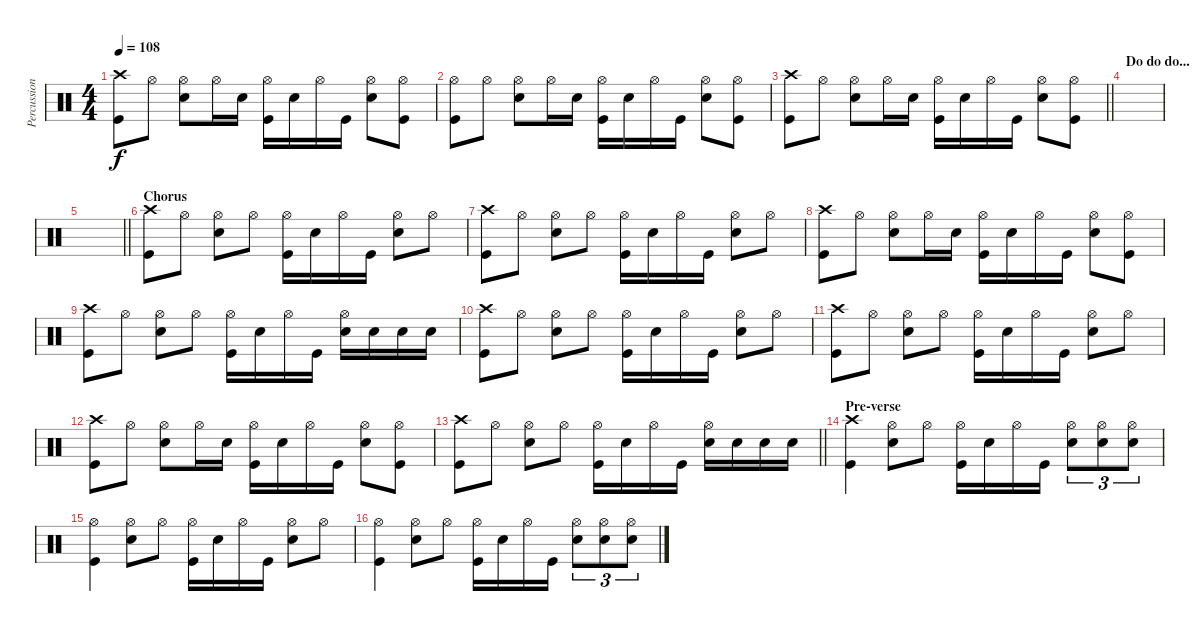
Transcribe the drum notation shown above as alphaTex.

\track ("Percussion" "Percussion") {instrument percussion}
\staff {score}
\articulation defaults
\ts (4 4)
\tempo 108
\clef neutral
\ks c
("Crash high (hit)" "Kick (hit)").8{dy f} "Hi-Hat (open)".8 ("Hi-Hat (open)" "Electric Snare (hit)").8 "Hi-Hat (open)".16 "Electric Snare (hit)".16 ("Hi-Hat (open)" "Kick (hit)").16 "Electric Snare (hit)".16 "Hi-Hat (open)".16 "Kick (hit)".16 ("Hi-Hat (open)" "Electric Snare (hit)").8 ("Hi-Hat (open)" "Kick (hit)").8 |
("Hi-Hat (open)" "Kick (hit)").8 "Hi-Hat (open)".8 ("Hi-Hat (open)" "Electric Snare (hit)").8 "Hi-Hat (open)".16 "Electric Snare (hit)".16 ("Hi-Hat (open)" "Kick (hit)").16 "Electric Snare (hit)".16 "Hi-Hat (open)".16 "Kick (hit)".16 ("Hi-Hat (open)" "Electric Snare (hit)").8 ("Hi-Hat (open)" "Kick (hit)").8 |
\barLineRight lightlight
("Crash high (hit)" "Kick (hit)").8 "Hi-Hat (open)".8 ("Hi-Hat (open)" "Electric Snare (hit)").8 "Hi-Hat (open)".16 "Electric Snare (hit)".16 ("Hi-Hat (open)" "Kick (hit)").16 "Electric Snare (hit)".16 "Hi-Hat (open)".16 "Kick (hit)".16 ("Hi-Hat (open)" "Electric Snare (hit)").8 ("Hi-Hat (open)" "Kick (hit)").8 |
\section ("" "Do do do...")
|
\barLineRight lightlight
|
\section ("" "Chorus")
("Crash high (hit)" "Kick (hit)").8 "Hi-Hat (open)".8 ("Hi-Hat (open)" "Electric Snare (hit)").8 "Hi-Hat (open)".8 ("Hi-Hat (open)" "Kick (hit)").16 "Electric Snare (hit)".16 "Hi-Hat (open)".16 "Kick (hit)".16 ("Hi-Hat (open)" "Electric Snare (hit)").8 "Hi-Hat (open)".8 |
("Crash high (hit)" "Kick (hit)").8 "Hi-Hat (open)".8 ("Hi-Hat (open)" "Electric Snare (hit)").8 "Hi-Hat (open)".8 ("Hi-Hat (open)" "Kick (hit)").16 "Electric Snare (hit)".16 "Hi-Hat (open)".16 "Kick (hit)".16 ("Hi-Hat (open)" "Electric Snare (hit)").8 "Hi-Hat (open)".8 |
("Crash high (hit)" "Kick (hit)").8 "Hi-Hat (open)".8 ("Hi-Hat (open)" "Electric Snare (hit)").8 "Hi-Hat (open)".16 "Electric Snare (hit)".16 ("Hi-Hat (open)" "Kick (hit)").16 "Electric Snare (hit)".16 "Hi-Hat (open)".16 "Kick (hit)".16 ("Hi-Hat (open)" "Electric Snare (hit)").8 ("Hi-Hat (open)" "Kick (hit)").8 |
("Crash high (hit)" "Kick (hit)").8 "Hi-Hat (open)".8 ("Hi-Hat (open)" "Electric Snare (hit)").8 "Hi-Hat (open)".8 ("Hi-Hat (open)" "Kick (hit)").16 "Electric Snare (hit)".16 "Hi-Hat (open)".16 "Kick (hit)".16 ("Hi-Hat (open)" "Electric Snare (hit)").16 "Electric Snare (hit)".16 "Electric Snare (hit)".16 "Electric Snare (hit)".16 |
("Crash high (hit)" "Kick (hit)").8 "Hi-Hat (open)".8 ("Hi-Hat (open)" "Electric Snare (hit)").8 "Hi-Hat (open)".8 ("Hi-Hat (open)" "Kick (hit)").16 "Electric Snare (hit)".16 "Hi-Hat (open)".16 "Kick (hit)".16 ("Hi-Hat (open)" "Electric Snare (hit)").8 "Hi-Hat (open)".8 |
("Crash high (hit)" "Kick (hit)").8 "Hi-Hat (open)".8 ("Hi-Hat (open)" "Electric Snare (hit)").8 "Hi-Hat (open)".8 ("Hi-Hat (open)" "Kick (hit)").16 "Electric Snare (hit)".16 "Hi-Hat (open)".16 "Kick (hit)".16 ("Hi-Hat (open)" "Electric Snare (hit)").8 "Hi-Hat (open)".8 |
("Crash high (hit)" "Kick (hit)").8 "Hi-Hat (open)".8 ("Hi-Hat (open)" "Electric Snare (hit)").8 "Hi-Hat (open)".16 "Electric Snare (hit)".16 ("Hi-Hat (open)" "Kick (hit)").16 "Electric Snare (hit)".16 "Hi-Hat (open)".16 "Kick (hit)".16 ("Hi-Hat (open)" "Electric Snare (hit)").8 ("Hi-Hat (open)" "Kick (hit)").8 |
\barLineRight lightlight
("Crash high (hit)" "Kick (hit)").8 "Hi-Hat (open)".8 ("Hi-Hat (open)" "Electric Snare (hit)").8 "Hi-Hat (open)".8 ("Hi-Hat (open)" "Kick (hit)").16 "Electric Snare (hit)".16 "Hi-Hat (open)".16 "Kick (hit)".16 ("Hi-Hat (open)" "Electric Snare (hit)").16 "Electric Snare (hit)".16 "Electric Snare (hit)".16 "Electric Snare (hit)".16 |
\section ("" "Pre-verse")
("Crash high (hit)" "Kick (hit)").4 ("Hi-Hat (open)" "Electric Snare (hit)").8 "Hi-Hat (open)".8 ("Hi-Hat (open)" "Kick (hit)").16 "Electric Snare (hit)".16 "Hi-Hat (open)".16 "Kick (hit)".16 ("Hi-Hat (open)" "Electric Snare (hit)").8{tu (3 2)} ("Hi-Hat (open)" "Electric Snare (hit)").8{tu (3 2)} ("Hi-Hat (open)" "Electric Snare (hit)").8{tu (3 2)} |
("Hi-Hat (open)" "Kick (hit)").4 ("Hi-Hat (open)" "Electric Snare (hit)").8 "Hi-Hat (open)".8 ("Hi-Hat (open)" "Kick (hit)").16 "Electric Snare (hit)".16 "Hi-Hat (open)".16 "Kick (hit)".16 ("Hi-Hat (open)" "Electric Snare (hit)").8 "Hi-Hat (open)".8 |
("Hi-Hat (open)" "Kick (hit)").4 ("Hi-Hat (open)" "Electric Snare (hit)").8 "Hi-Hat (open)".8 ("Hi-Hat (open)" "Kick (hit)").16 "Electric Snare (hit)".16 "Hi-Hat (open)".16 "Kick (hit)".16 ("Hi-Hat (open)" "Electric Snare (hit)").8{tu (3 2)} ("Hi-Hat (open)" "Electric Snare (hit)").8{tu (3 2)} ("Hi-Hat (open)" "Electric Snare (hit)").8{tu (3 2)}
